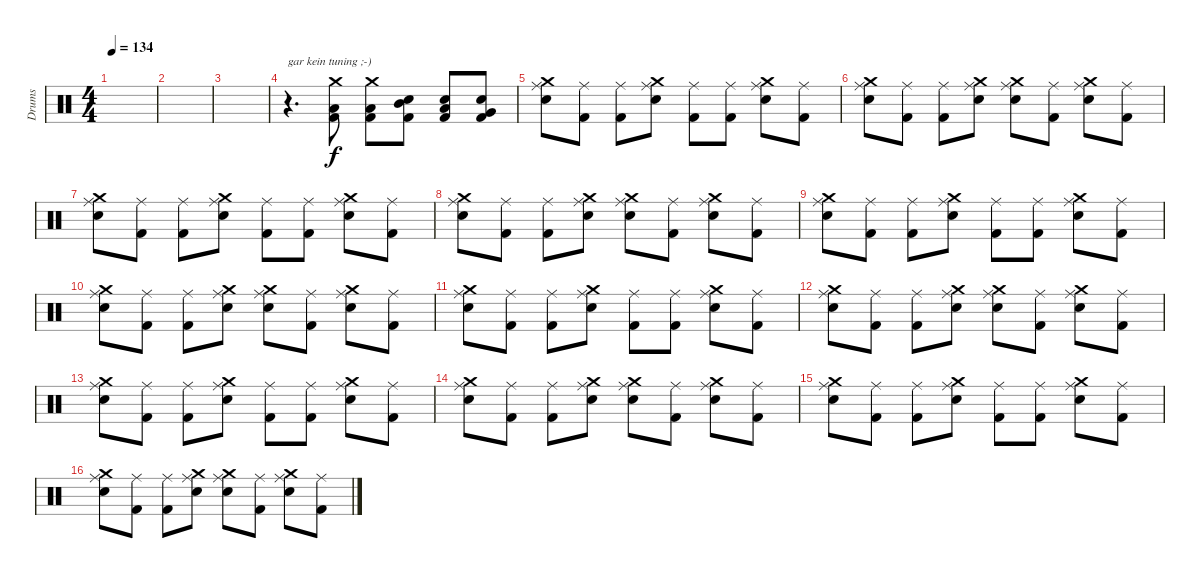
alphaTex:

\track ("Drums" "Drums") {instrument percussion}
\staff {score}
\articulation defaults
\ts (4 4)
\tempo 134
\clef neutral
\ks c
|
|
|
r.4{d txt "gar kein tuning ;-)"} ("Crash medium (hit)" "Low Tom (hit)" "Kick (hit) 2").8 ("Crash medium (hit)" "Low Tom (hit)" "Kick (hit) 2").8 ("Snare (hit) 2" "Mid Tom (hit)" "Kick (hit) 2").8 ("Snare (hit) 2" "Low Tom (hit)" "Kick (hit) 2").8 ("Snare (hit) 2" "Very Low Tom (hit)" "Kick (hit) 2").8 |
("Ride (middle)" "Crash medium (hit)" "Snare (hit) 2").8 ("Ride (middle)" "Kick (hit) 2").8 ("Ride (middle)" "Kick (hit) 2").8 ("Ride (middle)" "Crash medium (hit)" "Snare (hit) 2").8 ("Ride (middle)" "Kick (hit) 2").8 ("Ride (middle)" "Kick (hit) 2").8 ("Ride (middle)" "Crash medium (hit)" "Snare (hit) 2").8 ("Ride (middle)" "Kick (hit) 2").8 |
("Ride (middle)" "Crash medium (hit)" "Snare (hit) 2").8 ("Ride (middle)" "Kick (hit) 2").8 ("Ride (middle)" "Kick (hit) 2").8 ("Ride (middle)" "Crash medium (hit)" "Snare (hit) 2").8 ("Ride (middle)" "Crash medium (hit)" "Snare (hit) 2").8 ("Ride (middle)" "Kick (hit) 2").8 ("Ride (middle)" "Crash medium (hit)" "Snare (hit) 2").8 ("Ride (middle)" "Kick (hit) 2").8 |
("Ride (middle)" "Crash medium (hit)" "Snare (hit) 2").8 ("Ride (middle)" "Kick (hit) 2").8 ("Ride (middle)" "Kick (hit) 2").8 ("Ride (middle)" "Crash medium (hit)" "Snare (hit) 2").8 ("Ride (middle)" "Kick (hit) 2").8 ("Ride (middle)" "Kick (hit) 2").8 ("Ride (middle)" "Crash medium (hit)" "Snare (hit) 2").8 ("Ride (middle)" "Kick (hit) 2").8 |
("Ride (middle)" "Crash medium (hit)" "Snare (hit) 2").8 ("Ride (middle)" "Kick (hit) 2").8 ("Ride (middle)" "Kick (hit) 2").8 ("Ride (middle)" "Crash medium (hit)" "Snare (hit) 2").8 ("Ride (middle)" "Crash medium (hit)" "Snare (hit) 2").8 ("Ride (middle)" "Kick (hit) 2").8 ("Ride (middle)" "Crash medium (hit)" "Snare (hit) 2").8 ("Ride (middle)" "Kick (hit) 2").8 |
("Ride (middle)" "Crash medium (hit)" "Snare (hit) 2").8 ("Ride (middle)" "Kick (hit) 2").8 ("Ride (middle)" "Kick (hit) 2").8 ("Ride (middle)" "Crash medium (hit)" "Snare (hit) 2").8 ("Ride (middle)" "Kick (hit) 2").8 ("Ride (middle)" "Kick (hit) 2").8 ("Ride (middle)" "Crash medium (hit)" "Snare (hit) 2").8 ("Ride (middle)" "Kick (hit) 2").8 |
("Ride (middle)" "Crash medium (hit)" "Snare (hit) 2").8 ("Ride (middle)" "Kick (hit) 2").8 ("Ride (middle)" "Kick (hit) 2").8 ("Ride (middle)" "Crash medium (hit)" "Snare (hit) 2").8 ("Ride (middle)" "Crash medium (hit)" "Snare (hit) 2").8 ("Ride (middle)" "Kick (hit) 2").8 ("Ride (middle)" "Crash medium (hit)" "Snare (hit) 2").8 ("Ride (middle)" "Kick (hit) 2").8 |
("Ride (middle)" "Crash medium (hit)" "Snare (hit) 2").8 ("Ride (middle)" "Kick (hit) 2").8 ("Ride (middle)" "Kick (hit) 2").8 ("Ride (middle)" "Crash medium (hit)" "Snare (hit) 2").8 ("Ride (middle)" "Kick (hit) 2").8 ("Ride (middle)" "Kick (hit) 2").8 ("Ride (middle)" "Crash medium (hit)" "Snare (hit) 2").8 ("Ride (middle)" "Kick (hit) 2").8 |
("Ride (middle)" "Crash medium (hit)" "Snare (hit) 2").8 ("Ride (middle)" "Kick (hit) 2").8 ("Ride (middle)" "Kick (hit) 2").8 ("Ride (middle)" "Crash medium (hit)" "Snare (hit) 2").8 ("Ride (middle)" "Crash medium (hit)" "Snare (hit) 2").8 ("Ride (middle)" "Kick (hit) 2").8 ("Ride (middle)" "Crash medium (hit)" "Snare (hit) 2").8 ("Ride (middle)" "Kick (hit) 2").8 |
("Ride (middle)" "Crash medium (hit)" "Snare (hit) 2").8 ("Ride (middle)" "Kick (hit) 2").8 ("Ride (middle)" "Kick (hit) 2").8 ("Ride (middle)" "Crash medium (hit)" "Snare (hit) 2").8 ("Ride (middle)" "Kick (hit) 2").8 ("Ride (middle)" "Kick (hit) 2").8 ("Ride (middle)" "Crash medium (hit)" "Snare (hit) 2").8 ("Ride (middle)" "Kick (hit) 2").8 |
("Ride (middle)" "Crash medium (hit)" "Snare (hit) 2").8 ("Ride (middle)" "Kick (hit) 2").8 ("Ride (middle)" "Kick (hit) 2").8 ("Ride (middle)" "Crash medium (hit)" "Snare (hit) 2").8 ("Ride (middle)" "Crash medium (hit)" "Snare (hit) 2").8 ("Ride (middle)" "Kick (hit) 2").8 ("Ride (middle)" "Crash medium (hit)" "Snare (hit) 2").8 ("Ride (middle)" "Kick (hit) 2").8 |
("Ride (middle)" "Crash medium (hit)" "Snare (hit) 2").8 ("Ride (middle)" "Kick (hit) 2").8 ("Ride (middle)" "Kick (hit) 2").8 ("Ride (middle)" "Crash medium (hit)" "Snare (hit) 2").8 ("Ride (middle)" "Kick (hit) 2").8 ("Ride (middle)" "Kick (hit) 2").8 ("Ride (middle)" "Crash medium (hit)" "Snare (hit) 2").8 ("Ride (middle)" "Kick (hit) 2").8 |
("Ride (middle)" "Crash medium (hit)" "Snare (hit) 2").8 ("Ride (middle)" "Kick (hit) 2").8 ("Ride (middle)" "Kick (hit) 2").8 ("Ride (middle)" "Crash medium (hit)" "Snare (hit) 2").8 ("Ride (middle)" "Crash medium (hit)" "Snare (hit) 2").8 ("Ride (middle)" "Kick (hit) 2").8 ("Ride (middle)" "Crash medium (hit)" "Snare (hit) 2").8 ("Ride (middle)" "Kick (hit) 2").8
